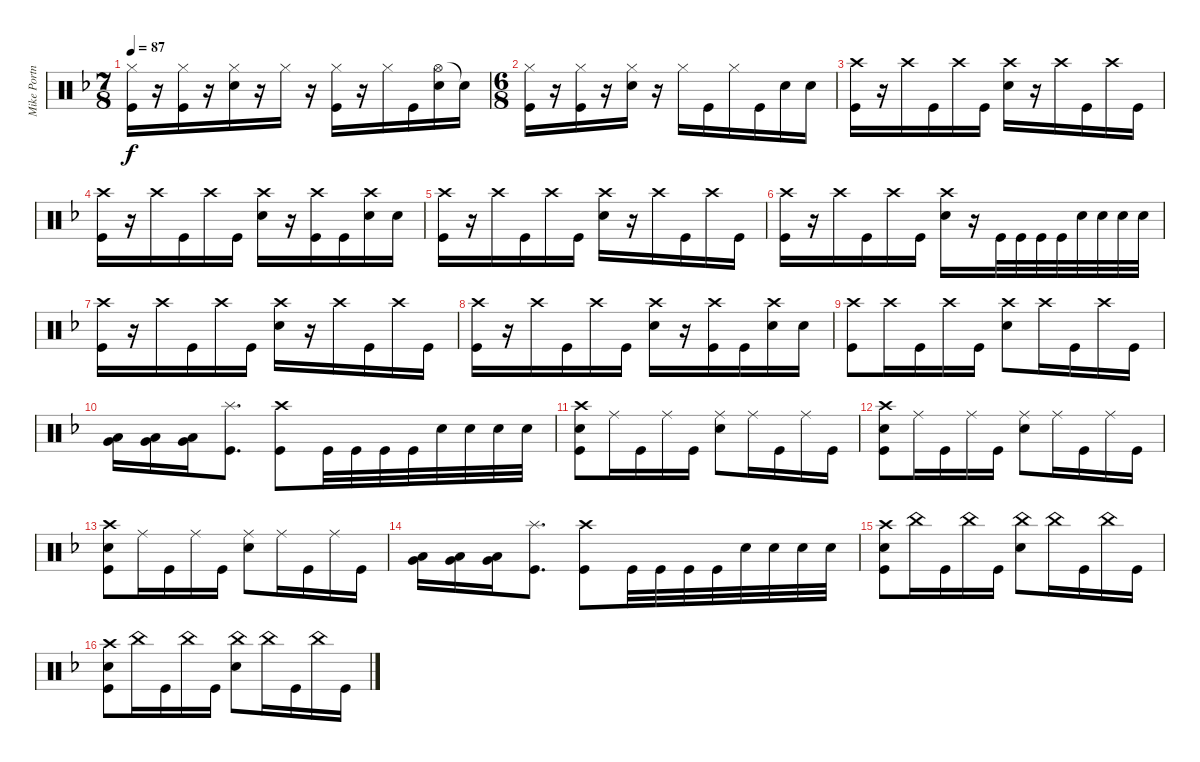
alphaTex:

\track ("Mike Portnoy - Drums" "Mike Portn") {instrument percussion}
\staff {score}
\articulation defaults
\ts (7 8)
\tempo 87
\clef neutral
\ks dminor
("Hi-Hat (closed)" "Kick (hit)").16{dy f} r.16 ("Hi-Hat (closed)" "Kick (hit)").16 r.16 ("Hi-Hat (closed)" "Snare (hit) 2").16 r.16 "Hi-Hat (closed)".16 r.16 ("Hi-Hat (closed)" "Kick (hit)").16 r.16 "Hi-Hat (closed)".16 "Kick (hit)".16 ("Hi-Hat (open)" "Snare (hit) 2").16 "Snare (hit)"{t}.16 |
\ts (6 8)
("Hi-Hat (closed)" "Kick (hit)").16 r.16 ("Hi-Hat (closed)" "Kick (hit)").16 r.16 ("Hi-Hat (closed)" "Snare (hit) 2").16 r.16 "Hi-Hat (closed)".16 "Kick (hit)".16 "Hi-Hat (closed)".16 "Kick (hit)".16 "Snare (hit) 2".16 "Snare (hit) 2".16 |
("Crash high (hit)" "Kick (hit)").16 r.16 "Crash high (hit)".16 "Kick (hit)".16 "Crash high (hit)".16 "Kick (hit)".16 ("Crash high (hit)" "Snare (hit) 2").16 r.16 "Crash high (hit)".16 "Kick (hit)".16 "Crash high (hit)".16 "Kick (hit)".16 |
("Crash high (hit)" "Kick (hit)").16 r.16 "Crash high (hit)".16 "Kick (hit)".16 "Crash high (hit)".16 "Kick (hit)".16 ("Crash high (hit)" "Snare (hit) 2").16 r.16 ("Crash high (hit)" "Kick (hit)").16 "Kick (hit)".16 ("Crash high (hit)" "Snare (hit) 2").16 "Snare (hit) 2".16 |
("Crash high (hit)" "Kick (hit)").16 r.16 "Crash high (hit)".16 "Kick (hit)".16 "Crash high (hit)".16 "Kick (hit)".16 ("Crash high (hit)" "Snare (hit) 2").16 r.16 "Crash high (hit)".16 "Kick (hit)".16 "Crash high (hit)".16 "Kick (hit)".16 |
("Crash high (hit)" "Kick (hit)").16 r.16 "Crash high (hit)".16 "Kick (hit)".16 "Crash high (hit)".16 "Kick (hit)".16 ("Crash high (hit)" "Snare (hit) 2").16 r.16 "Kick (hit)".32 "Kick (hit)".32 "Kick (hit)".32 "Kick (hit)".32 "Snare (hit) 2".32 "Snare (hit) 2".32 "Snare (hit) 2".32 "Snare (hit) 2".32 |
("Crash high (hit)" "Kick (hit)").16 r.16 "Crash high (hit)".16 "Kick (hit)".16 "Crash high (hit)".16 "Kick (hit)".16 ("Crash high (hit)" "Snare (hit) 2").16 r.16 "Crash high (hit)".16 "Kick (hit)".16 "Crash high (hit)".16 "Kick (hit)".16 |
("Crash high (hit)" "Kick (hit)").16 r.16 "Crash high (hit)".16 "Kick (hit)".16 "Crash high (hit)".16 "Kick (hit)".16 ("Crash high (hit)" "Snare (hit) 2").16 r.16 ("Crash high (hit)" "Kick (hit)").16 "Kick (hit)".16 ("Crash high (hit)" "Snare (hit) 2").16 "Snare (hit) 2".16 |
("Crash high (hit)" "Kick (hit)").8 "Crash high (hit)".16 "Kick (hit)".16 "Crash high (hit)".16 "Kick (hit)".16 ("Crash high (hit)" "Snare (hit) 2").8 "Crash high (hit)".16 "Kick (hit)".16 "Crash high (hit)".16 "Kick (hit)".16 |
("Low Tom (hit)" "Very Low Tom (hit)").16 ("Low Tom (hit)" "Very Low Tom (hit)").16 ("Low Tom (hit)" "Very Low Tom (hit)").16 ("Splash (hit)" "Kick (hit)").8{d} ("Crash high (hit)" "Kick (hit)").8 "Kick (hit)".32 "Kick (hit)".32 "Kick (hit)".32 "Kick (hit)".32 "Snare (hit) 2".32 "Snare (hit) 2".32 "Snare (hit) 2".32 "Snare (hit) 2".32 |
("Crash high (hit)" "Snare (hit) 2" "Kick (hit)").8 "Ride (middle)".16 "Kick (hit)".16 "Ride (middle)".16 "Kick (hit)".16 ("Ride (middle)" "Snare (hit) 2").8 "Ride (middle)".16 "Kick (hit)".16 "Ride (middle)".16 "Kick (hit)".16 |
("Crash high (hit)" "Snare (hit) 2" "Kick (hit)").8 "Ride (middle)".16 "Kick (hit)".16 "Ride (middle)".16 "Kick (hit)".16 ("Ride (middle)" "Snare (hit) 2").8 "Ride (middle)".16 "Kick (hit)".16 "Ride (middle)".16 "Kick (hit)".16 |
("Crash high (hit)" "Snare (hit) 2" "Kick (hit)").8 "Ride (middle)".16 "Kick (hit)".16 "Ride (middle)".16 "Kick (hit)".16 ("Ride (middle)" "Snare (hit) 2").8 "Ride (middle)".16 "Kick (hit)".16 "Ride (middle)".16 "Kick (hit)".16 |
("Low Tom (hit)" "Very Low Tom (hit)").16 ("Low Tom (hit)" "Very Low Tom (hit)").16 ("Low Tom (hit)" "Very Low Tom (hit)").16 ("Splash (hit)" "Kick (hit)").8{d} ("Crash high (hit)" "Kick (hit)").8 "Kick (hit)".32 "Kick (hit)".32 "Kick (hit)".32 "Kick (hit)".32 "Snare (hit) 2".32 "Snare (hit) 2".32 "Snare (hit) 2".32 "Snare (hit) 2".32 |
("Crash high (hit)" "Snare (hit) 2" "Kick (hit)").8 "China (hit)".16 "Kick (hit)".16 "China (hit)".16 "Kick (hit)".16 ("China (hit)" "Snare (hit) 2").8 "China (hit)".16 "Kick (hit)".16 "China (hit)".16 "Kick (hit)".16 |
("Crash high (hit)" "Snare (hit) 2" "Kick (hit)").8 "China (hit)".16 "Kick (hit)".16 "China (hit)".16 "Kick (hit)".16 ("China (hit)" "Snare (hit) 2").8 "China (hit)".16 "Kick (hit)".16 "China (hit)".16 "Kick (hit)".16
